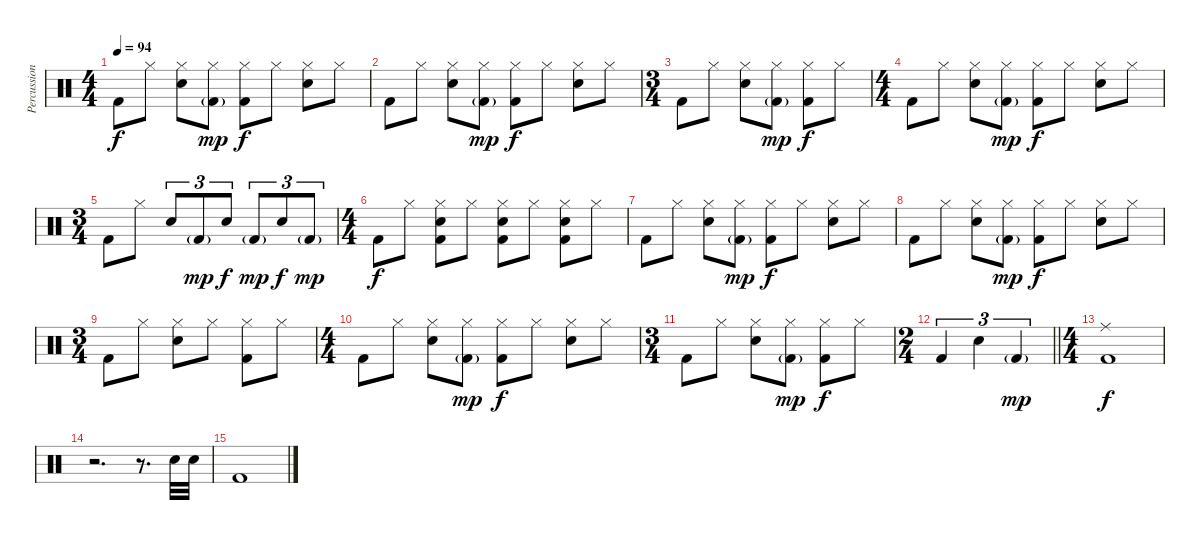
\track ("Percussion" "Percussion") {instrument percussion}
\staff {score}
\articulation defaults
\ts (4 4)
\tempo 94
\clef neutral
\ks c "Kick (hit) 2".8{dy f} "Hi-Hat (closed)".8
("Hi-Hat (closed)" "Snare (hit) 2").8 ("Hi-Hat (closed)" "Kick (hit) 2"{g}).8{dy mp} ("Hi-Hat (closed)" "Kick (hit) 2").8{dy f} "Hi-Hat (closed)".8 ("Hi-Hat (closed)" "Snare (hit) 2").8 "Hi-Hat (closed)".8 |
"Kick (hit) 2".8 "Hi-Hat (closed)".8 ("Hi-Hat (closed)" "Snare (hit) 2").8 ("Hi-Hat (closed)" "Kick (hit) 2"{g}).8{dy mp} ("Hi-Hat (closed)" "Kick (hit) 2").8{dy f} "Hi-Hat (closed)".8 ("Hi-Hat (closed)" "Snare (hit) 2").8 "Hi-Hat (closed)".8 |
\ts (3 4)
"Kick (hit) 2".8 "Hi-Hat (closed)".8 ("Hi-Hat (closed)" "Snare (hit) 2").8 ("Hi-Hat (closed)" "Kick (hit) 2"{g}).8{dy mp} ("Hi-Hat (closed)" "Kick (hit) 2").8{dy f} "Hi-Hat (closed)".8 |
\ts (4 4)
"Kick (hit) 2".8 "Hi-Hat (closed)".8 ("Hi-Hat (closed)" "Snare (hit) 2").8 ("Hi-Hat (closed)" "Kick (hit) 2"{g}).8{dy mp} ("Hi-Hat (closed)" "Kick (hit) 2").8{dy f} "Hi-Hat (closed)".8 ("Hi-Hat (closed)" "Snare (hit) 2").8 "Hi-Hat (closed)".8 |
\ts (3 4)
"Kick (hit) 2".8 "Hi-Hat (closed)".8 "Snare (hit) 2".8{tu (3 2)} "Kick (hit) 2"{g}.8{tu (3 2) dy mp} "Snare (hit) 2".8{tu (3 2) dy f} "Kick (hit) 2"{g}.8{tu (3 2) dy mp} "Snare (hit) 2".8{tu (3 2) dy f} "Kick (hit) 2"{g}.8{tu (3 2) dy mp} |
\ts (4 4)
"Kick (hit) 2".8{dy f} "Hi-Hat (closed)".8 ("Hi-Hat (closed)" "Snare (hit) 2" "Kick (hit) 2").8 "Hi-Hat (closed)".8 ("Hi-Hat (closed)" "Snare (hit) 2" "Kick (hit) 2").8 "Hi-Hat (closed)".8 ("Hi-Hat (closed)" "Snare (hit) 2" "Kick (hit) 2").8 "Hi-Hat (closed)".8 |
"Kick (hit) 2".8 "Hi-Hat (closed)".8 ("Hi-Hat (closed)" "Snare (hit) 2").8 ("Hi-Hat (closed)" "Kick (hit) 2"{g}).8{dy mp} ("Hi-Hat (closed)" "Kick (hit) 2").8{dy f} "Hi-Hat (closed)".8 ("Hi-Hat (closed)" "Snare (hit) 2").8 "Hi-Hat (closed)".8 |
"Kick (hit) 2".8 "Hi-Hat (closed)".8 ("Hi-Hat (closed)" "Snare (hit) 2").8 ("Hi-Hat (closed)" "Kick (hit) 2"{g}).8{dy mp} ("Hi-Hat (closed)" "Kick (hit) 2").8{dy f} "Hi-Hat (closed)".8 ("Hi-Hat (closed)" "Snare (hit) 2").8 "Hi-Hat (closed)".8 |
\ts (3 4)
"Kick (hit) 2".8 "Hi-Hat (closed)".8 ("Hi-Hat (closed)" "Snare (hit) 2").8 "Hi-Hat (closed)".8 ("Hi-Hat (closed)" "Kick (hit) 2").8 "Hi-Hat (closed)".8 |
\ts (4 4)
"Kick (hit) 2".8 "Hi-Hat (closed)".8 ("Hi-Hat (closed)" "Snare (hit) 2").8 ("Hi-Hat (closed)" "Kick (hit) 2"{g}).8{dy mp} ("Hi-Hat (closed)" "Kick (hit) 2").8{dy f} "Hi-Hat (closed)".8 ("Hi-Hat (closed)" "Snare (hit) 2").8 "Hi-Hat (closed)".8 |
\ts (3 4)
"Kick (hit) 2".8 "Hi-Hat (closed)".8 ("Hi-Hat (closed)" "Snare (hit) 2").8 ("Hi-Hat (closed)" "Kick (hit) 2"{g}).8{dy mp} ("Hi-Hat (closed)" "Kick (hit) 2").8{dy f} "Hi-Hat (closed)".8 |
\ts (2 4)
\barLineRight lightlight "Kick (hit) 2".4{tu (3 2)} "Snare (hit) 2".4{tu (3 2)} "Kick (hit) 2"{g}.4{tu (3 2) dy mp}
|
\ts (4 4)
("Ride (middle)" "Kick (hit) 2").1{dy f} |
r.2{d} r.8{d} "Snare (hit) 2".32 "Snare (hit) 2".32 |
"Kick (hit) 2".1
